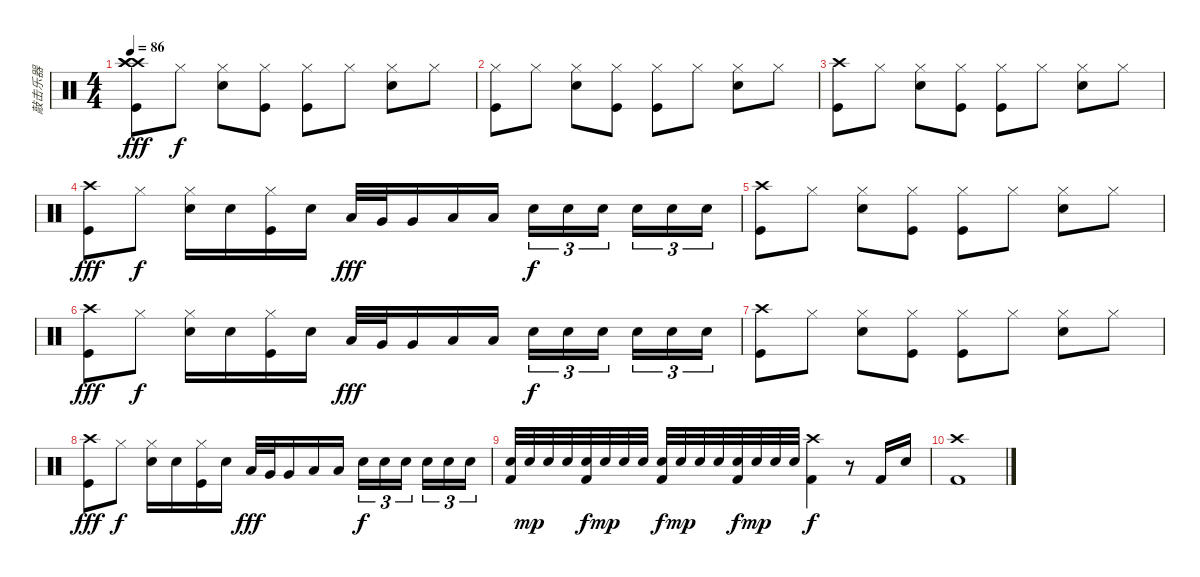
\track ("敲击乐器" "敲击乐器") {instrument percussion}
\staff {score}
\articulation defaults
\ts (4 4)
\tempo 86
\clef neutral
\ks c
("Crash high (hit)" "Crash high (hit)" "Crash high (hit)" "Kick (hit)").8{dy fff} "Hi-Hat (closed)".8{dy f} ("Hi-Hat (closed)" "Electric Snare (hit)").8 ("Hi-Hat (closed)" "Kick (hit)").8 ("Hi-Hat (closed)" "Kick (hit)").8 "Hi-Hat (closed)".8 ("Hi-Hat (closed)" "Electric Snare (hit)").8 "Hi-Hat (closed)".8 |
("Hi-Hat (closed)" "Kick (hit)").8 "Hi-Hat (closed)".8 ("Hi-Hat (closed)" "Electric Snare (hit)").8 ("Hi-Hat (closed)" "Kick (hit)").8 ("Hi-Hat (closed)" "Kick (hit)").8 "Hi-Hat (closed)".8 ("Hi-Hat (closed)" "Electric Snare (hit)").8 "Hi-Hat (closed)".8 |
("Crash high (hit)" "Kick (hit)").8 "Hi-Hat (closed)".8 ("Hi-Hat (closed)" "Electric Snare (hit)").8 ("Hi-Hat (closed)" "Kick (hit)").8 ("Hi-Hat (closed)" "Kick (hit)").8 "Hi-Hat (closed)".8 ("Hi-Hat (closed)" "Electric Snare (hit)").8 "Hi-Hat (closed)".8 |
("Crash high (hit)" "Kick (hit)").8{dy fff} "Hi-Hat (closed)".8{dy f} ("Hi-Hat (closed)" "Electric Snare (hit)").16 "Electric Snare (hit)".16 ("Hi-Hat (closed)" "Kick (hit)").16 "Electric Snare (hit)".16 "Low Tom (hit)".32{dy fff} "Very Low Tom (hit)".32 "Very Low Tom (hit)".16 "Low Floor Tom (hit)".16 "Low Floor Tom (hit)".16 "Electric Snare (hit)".16{tu (3 2) dy f} "Electric Snare (hit)".16{tu (3 2)} "Electric Snare (hit)".16{tu (3 2) beam splitsecondary} "Electric Snare (hit)".16{tu (3 2)} "Electric Snare (hit)".16{tu (3 2)} "Electric Snare (hit)".16{tu (3 2)} |
("Crash high (hit)" "Kick (hit)").8 "Hi-Hat (closed)".8 ("Hi-Hat (closed)" "Electric Snare (hit)").8 ("Hi-Hat (closed)" "Kick (hit)").8 ("Hi-Hat (closed)" "Kick (hit)").8 "Hi-Hat (closed)".8 ("Hi-Hat (closed)" "Electric Snare (hit)").8 "Hi-Hat (closed)".8 |
("Crash high (hit)" "Kick (hit)").8{dy fff} "Hi-Hat (closed)".8{dy f} ("Hi-Hat (closed)" "Electric Snare (hit)").16 "Electric Snare (hit)".16 ("Hi-Hat (closed)" "Kick (hit)").16 "Electric Snare (hit)".16 "Low Tom (hit)".32{dy fff} "Very Low Tom (hit)".32 "Very Low Tom (hit)".16 "Low Floor Tom (hit)".16 "Low Floor Tom (hit)".16 "Electric Snare (hit)".16{tu (3 2) dy f} "Electric Snare (hit)".16{tu (3 2)} "Electric Snare (hit)".16{tu (3 2) beam splitsecondary} "Electric Snare (hit)".16{tu (3 2)} "Electric Snare (hit)".16{tu (3 2)} "Electric Snare (hit)".16{tu (3 2)} |
("Crash high (hit)" "Kick (hit)").8 "Hi-Hat (closed)".8 ("Hi-Hat (closed)" "Electric Snare (hit)").8 ("Hi-Hat (closed)" "Kick (hit)").8 ("Hi-Hat (closed)" "Kick (hit)").8 "Hi-Hat (closed)".8 ("Hi-Hat (closed)" "Electric Snare (hit)").8 "Hi-Hat (closed)".8 |
("Crash high (hit)" "Kick (hit)").8{dy fff} "Hi-Hat (closed)".8{dy f} ("Hi-Hat (closed)" "Electric Snare (hit)").16 "Electric Snare (hit)".16 ("Hi-Hat (closed)" "Kick (hit)").16 "Electric Snare (hit)".16 "Low Tom (hit)".32{dy fff} "Very Low Tom (hit)".32 "Very Low Tom (hit)".16 "Low Floor Tom (hit)".16 "Low Floor Tom (hit)".16 "Electric Snare (hit)".16{tu (3 2) dy f} "Electric Snare (hit)".16{tu (3 2)} "Electric Snare (hit)".16{tu (3 2) beam splitsecondary} "Electric Snare (hit)".16{tu (3 2)} "Electric Snare (hit)".16{tu (3 2)} "Electric Snare (hit)".16{tu (3 2)} |
("Electric Snare (hit)" "Kick (hit) 2").32 "Electric Snare (hit)".32{dy mp} "Electric Snare (hit)".32 "Electric Snare (hit)".32 ("Electric Snare (hit)" "Kick (hit) 2").32{dy f} "Electric Snare (hit)".32{dy mp} "Electric Snare (hit)".32 "Electric Snare (hit)".32 ("Electric Snare (hit)" "Kick (hit) 2").32{dy f} "Electric Snare (hit)".32{dy mp} "Electric Snare (hit)".32 "Electric Snare (hit)".32 ("Electric Snare (hit)" "Kick (hit) 2").32{dy f} "Electric Snare (hit)".32{dy mp} "Electric Snare (hit)".32 "Electric Snare (hit)".32 ("Crash high (hit)" "Kick (hit) 2").4{dy f} r.8 "Kick (hit) 2".16 "Electric Snare (hit)".16 |
("Crash high (hit)" "Kick (hit) 2").1
